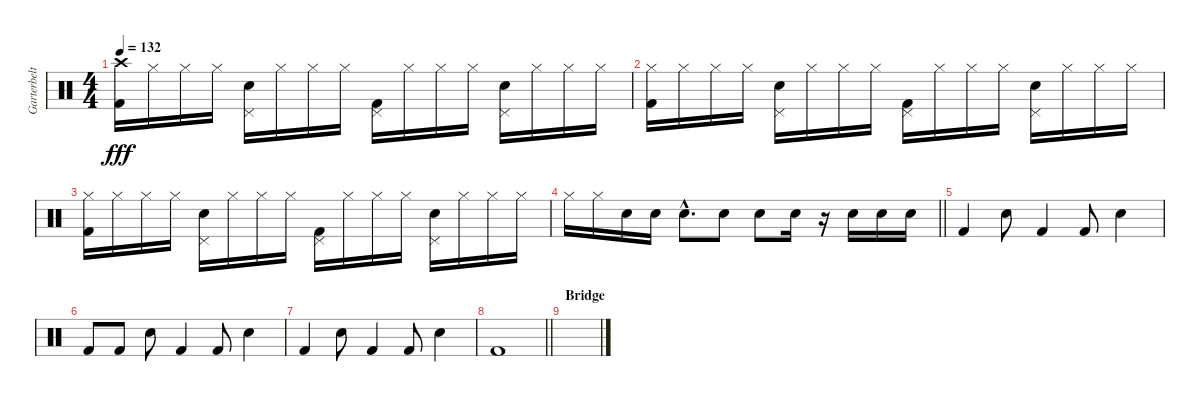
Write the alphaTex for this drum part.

\track ("Garterbelt" "Garterbelt") {instrument percussion}
\staff {score}
\articulation defaults
\ts (4 4)
\tempo 132
\clef neutral
\ks c
("Crash high (hit)" "Kick (hit) 2").16{dy fff} "Hi-Hat (closed)".16 "Hi-Hat (closed)".16 "Hi-Hat (closed)".16 ("Pedal Hi-Hat (hit)" "Hand Clap (hit)").16 "Hi-Hat (closed)".16 "Hi-Hat (closed)".16 "Hi-Hat (closed)".16 ("Pedal Hi-Hat (hit)" "Kick (hit) 2").16 "Hi-Hat (closed)".16 "Hi-Hat (closed)".16 "Hi-Hat (closed)".16 ("Pedal Hi-Hat (hit)" "Hand Clap (hit)").16 "Hi-Hat (closed)".16 "Hi-Hat (closed)".16 "Hi-Hat (closed)".16 |
("Hi-Hat (closed)" "Kick (hit) 2").16 "Hi-Hat (closed)".16 "Hi-Hat (closed)".16 "Hi-Hat (closed)".16 ("Pedal Hi-Hat (hit)" "Hand Clap (hit)").16 "Hi-Hat (closed)".16 "Hi-Hat (closed)".16 "Hi-Hat (closed)".16 ("Pedal Hi-Hat (hit)" "Kick (hit) 2").16 "Hi-Hat (closed)".16 "Hi-Hat (closed)".16 "Hi-Hat (closed)".16 ("Pedal Hi-Hat (hit)" "Hand Clap (hit)").16 "Hi-Hat (closed)".16 "Hi-Hat (closed)".16 "Hi-Hat (closed)".16 |
("Hi-Hat (closed)" "Kick (hit) 2").16 "Hi-Hat (closed)".16 "Hi-Hat (closed)".16 "Hi-Hat (closed)".16 ("Pedal Hi-Hat (hit)" "Hand Clap (hit)").16 "Hi-Hat (closed)".16 "Hi-Hat (closed)".16 "Hi-Hat (closed)".16 ("Pedal Hi-Hat (hit)" "Kick (hit) 2").16 "Hi-Hat (closed)".16 "Hi-Hat (closed)".16 "Hi-Hat (closed)".16 ("Pedal Hi-Hat (hit)" "Hand Clap (hit)").16 "Hi-Hat (closed)".16 "Hi-Hat (closed)".16 "Hi-Hat (closed)".16 |
\barLineRight lightlight "Hi-Hat (closed)".16 "Hi-Hat (closed)".16 "Hand Clap (hit)".16 "Hand Clap (hit)".16 "Hand Clap (hit)"{hac}.8{d} "Hand Clap (hit)".8 "Hand Clap (hit)".8 "Hand Clap (hit)".16
r.16 "Hand Clap (hit)".16 "Hand Clap (hit)".16 "Hand Clap (hit)".16 |
"Kick (hit) 2".4 "Hand Clap (hit)".8 "Kick (hit) 2".4 "Kick (hit) 2".8 "Hand Clap (hit)".4 |
"Kick (hit) 2".8 "Kick (hit) 2".8 "Hand Clap (hit)".8 "Kick (hit) 2".4 "Kick (hit) 2".8 "Hand Clap (hit)".4 |
"Kick (hit) 2".4 "Hand Clap (hit)".8 "Kick (hit) 2".4 "Kick (hit) 2".8 "Hand Clap (hit)".4 |
\barLineRight lightlight "Kick (hit) 2".1
|
\section ("" "Bridge")
